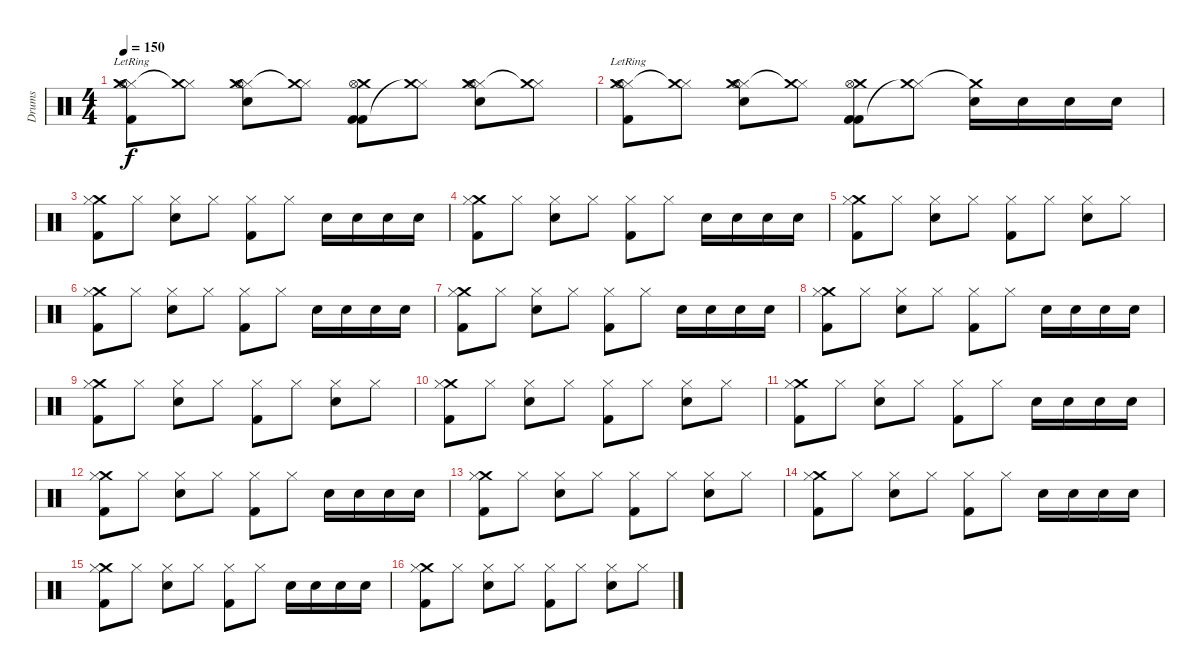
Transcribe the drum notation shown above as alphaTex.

\track ("Drums" "Drums") {instrument percussion}
\staff {score}
\articulation defaults
\ts (4 4)
\tempo 150
\clef neutral
\ks c
("Kick (hit) 2" "Hi-Hat (closed)" "Crash medium (hit)"{lr} "Hi-Hat (open)").8{dy f} ("Hi-Hat (closed)" "Crash medium (hit)"{t}).8 ("Snare (hit) 2" "Hi-Hat (closed)" "Crash medium (hit)" "Hi-Hat (open)").8 ("Hi-Hat (closed)" "Crash medium (hit)"{t}).8 ("Kick (hit) 2" "Kick (hit) 2" "Crash medium (hit)" "Hi-Hat (open)").8 ("Hi-Hat (closed)" "Crash medium (hit)"{t}).8 ("Snare (hit) 2" "Hi-Hat (closed)" "Crash medium (hit)" "Hi-Hat (open)").8 ("Hi-Hat (closed)" "Crash medium (hit)"{t}).8 |
("Kick (hit) 2" "Hi-Hat (closed)" "Crash medium (hit)"{lr} "Hi-Hat (open)").8 ("Hi-Hat (closed)" "Crash medium (hit)"{t}).8 ("Snare (hit) 2" "Hi-Hat (closed)" "Crash medium (hit)" "Hi-Hat (open)").8 ("Hi-Hat (closed)" "Crash medium (hit)"{t}).8 ("Kick (hit) 2" "Kick (hit) 2" "Crash medium (hit)" "Hi-Hat (open)").8 ("Hi-Hat (closed)" "Crash medium (hit)"{t}).8 ("Snare (hit) 2" "Crash medium (hit)"{t}).16 "Snare (hit) 2".16 "Snare (hit) 2".16 "Snare (hit) 2".16 |
("Kick (hit) 2" "Crash medium (hit)" "Hi-Hat (closed)").8 "Hi-Hat (closed)".8 ("Snare (hit) 2" "Hi-Hat (closed)").8 "Hi-Hat (closed)".8 ("Kick (hit) 2" "Hi-Hat (closed)").8 "Hi-Hat (closed)".8 "Snare (hit) 2".16 "Snare (hit) 2".16 "Snare (hit) 2".16 "Snare (hit) 2".16 |
("Kick (hit) 2" "Crash medium (hit)" "Hi-Hat (closed)").8 "Hi-Hat (closed)".8 ("Snare (hit) 2" "Hi-Hat (closed)").8 "Hi-Hat (closed)".8 ("Kick (hit) 2" "Hi-Hat (closed)").8 "Hi-Hat (closed)".8 "Snare (hit) 2".16 "Snare (hit) 2".16 "Snare (hit) 2".16 "Snare (hit) 2".16 |
("Kick (hit) 2" "Crash medium (hit)" "Hi-Hat (closed)").8 "Hi-Hat (closed)".8 ("Snare (hit) 2" "Hi-Hat (closed)").8 "Hi-Hat (closed)".8 ("Kick (hit) 2" "Hi-Hat (closed)").8 "Hi-Hat (closed)".8 ("Snare (hit) 2" "Hi-Hat (closed)").8 "Hi-Hat (closed)".8 |
("Kick (hit) 2" "Crash medium (hit)" "Hi-Hat (closed)").8 "Hi-Hat (closed)".8 ("Snare (hit) 2" "Hi-Hat (closed)").8 "Hi-Hat (closed)".8 ("Kick (hit) 2" "Hi-Hat (closed)").8 "Hi-Hat (closed)".8 "Snare (hit) 2".16 "Snare (hit) 2".16 "Snare (hit) 2".16 "Snare (hit) 2".16 |
("Kick (hit) 2" "Crash medium (hit)" "Hi-Hat (closed)").8 "Hi-Hat (closed)".8 ("Snare (hit) 2" "Hi-Hat (closed)").8 "Hi-Hat (closed)".8 ("Kick (hit) 2" "Hi-Hat (closed)").8 "Hi-Hat (closed)".8 "Snare (hit) 2".16 "Snare (hit) 2".16 "Snare (hit) 2".16 "Snare (hit) 2".16 |
("Kick (hit) 2" "Crash medium (hit)" "Hi-Hat (closed)").8 "Hi-Hat (closed)".8 ("Snare (hit) 2" "Hi-Hat (closed)").8 "Hi-Hat (closed)".8 ("Kick (hit) 2" "Hi-Hat (closed)").8 "Hi-Hat (closed)".8 "Snare (hit) 2".16 "Snare (hit) 2".16 "Snare (hit) 2".16 "Snare (hit) 2".16 |
("Kick (hit) 2" "Crash medium (hit)" "Hi-Hat (closed)").8 "Hi-Hat (closed)".8 ("Snare (hit) 2" "Hi-Hat (closed)").8 "Hi-Hat (closed)".8 ("Kick (hit) 2" "Hi-Hat (closed)").8 "Hi-Hat (closed)".8 ("Snare (hit) 2" "Hi-Hat (closed)").8 "Hi-Hat (closed)".8 |
("Kick (hit) 2" "Crash medium (hit)" "Hi-Hat (closed)").8 "Hi-Hat (closed)".8 ("Snare (hit) 2" "Hi-Hat (closed)").8 "Hi-Hat (closed)".8 ("Kick (hit) 2" "Hi-Hat (closed)").8 "Hi-Hat (closed)".8 ("Snare (hit) 2" "Hi-Hat (closed)").8 "Hi-Hat (closed)".8 |
("Kick (hit) 2" "Crash medium (hit)" "Hi-Hat (closed)").8 "Hi-Hat (closed)".8 ("Snare (hit) 2" "Hi-Hat (closed)").8 "Hi-Hat (closed)".8 ("Kick (hit) 2" "Hi-Hat (closed)").8 "Hi-Hat (closed)".8 "Snare (hit) 2".16 "Snare (hit) 2".16 "Snare (hit) 2".16 "Snare (hit) 2".16 |
("Kick (hit) 2" "Crash medium (hit)" "Hi-Hat (closed)").8 "Hi-Hat (closed)".8 ("Snare (hit) 2" "Hi-Hat (closed)").8 "Hi-Hat (closed)".8 ("Kick (hit) 2" "Hi-Hat (closed)").8 "Hi-Hat (closed)".8 "Snare (hit) 2".16 "Snare (hit) 2".16 "Snare (hit) 2".16 "Snare (hit) 2".16 |
("Kick (hit) 2" "Crash medium (hit)" "Hi-Hat (closed)").8 "Hi-Hat (closed)".8 ("Snare (hit) 2" "Hi-Hat (closed)").8 "Hi-Hat (closed)".8 ("Kick (hit) 2" "Hi-Hat (closed)").8 "Hi-Hat (closed)".8 ("Snare (hit) 2" "Hi-Hat (closed)").8 "Hi-Hat (closed)".8 |
("Kick (hit) 2" "Crash medium (hit)" "Hi-Hat (closed)").8 "Hi-Hat (closed)".8 ("Snare (hit) 2" "Hi-Hat (closed)").8 "Hi-Hat (closed)".8 ("Kick (hit) 2" "Hi-Hat (closed)").8 "Hi-Hat (closed)".8 "Snare (hit) 2".16 "Snare (hit) 2".16 "Snare (hit) 2".16 "Snare (hit) 2".16 |
("Kick (hit) 2" "Crash medium (hit)" "Hi-Hat (closed)").8 "Hi-Hat (closed)".8 ("Snare (hit) 2" "Hi-Hat (closed)").8 "Hi-Hat (closed)".8 ("Kick (hit) 2" "Hi-Hat (closed)").8 "Hi-Hat (closed)".8 "Snare (hit) 2".16 "Snare (hit) 2".16 "Snare (hit) 2".16 "Snare (hit) 2".16 |
("Kick (hit) 2" "Crash medium (hit)" "Hi-Hat (closed)").8 "Hi-Hat (closed)".8 ("Snare (hit) 2" "Hi-Hat (closed)").8 "Hi-Hat (closed)".8 ("Kick (hit) 2" "Hi-Hat (closed)").8 "Hi-Hat (closed)".8 ("Snare (hit) 2" "Hi-Hat (closed)").8 "Hi-Hat (closed)".8
